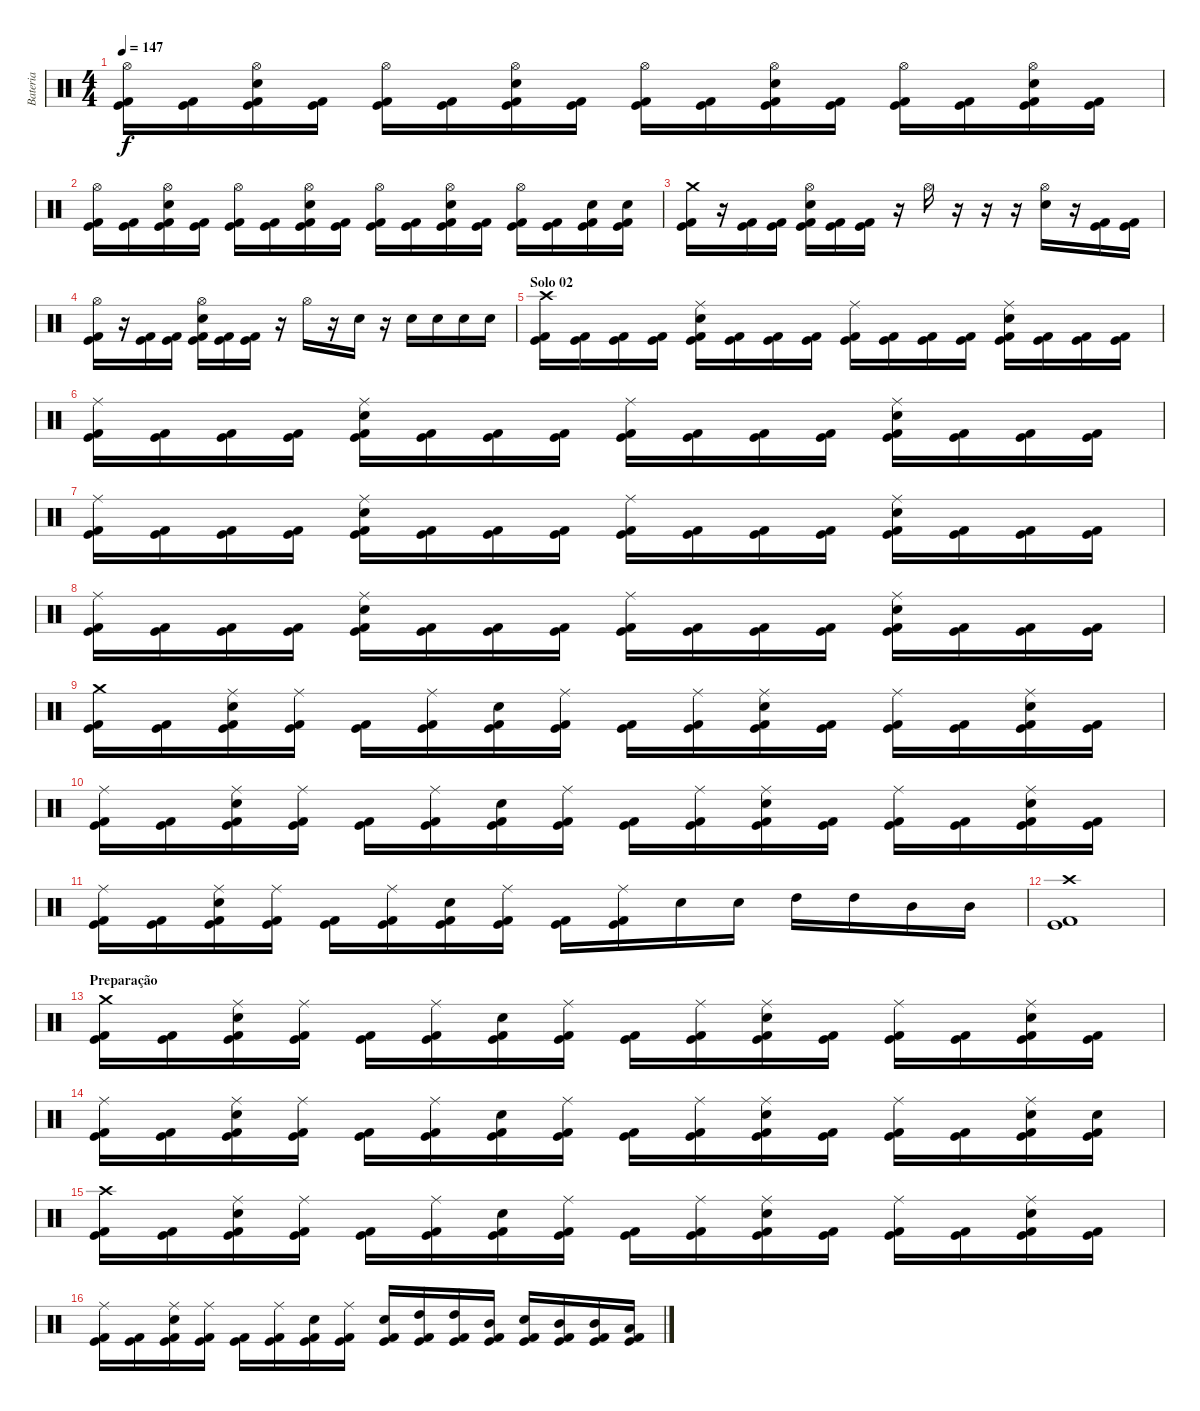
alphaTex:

\track ("Bateria" "Bateria") {instrument percussion}
\staff {score}
\articulation defaults
\ts (4 4)
\tempo 147
\clef neutral
\ks c
("Hi-Hat (open)" "Kick (hit)" "Kick (hit) 2").16{dy f} ("Kick (hit)" "Kick (hit) 2").16 ("Hi-Hat (open)" "Electric Snare (hit)" "Kick (hit)" "Kick (hit) 2").16 ("Kick (hit)" "Kick (hit) 2").16 ("Hi-Hat (open)" "Kick (hit)" "Kick (hit) 2").16 ("Kick (hit)" "Kick (hit) 2").16 ("Hi-Hat (open)" "Electric Snare (hit)" "Kick (hit)" "Kick (hit) 2").16 ("Kick (hit)" "Kick (hit) 2").16 ("Hi-Hat (open)" "Kick (hit)" "Kick (hit) 2").16 ("Kick (hit)" "Kick (hit) 2").16 ("Hi-Hat (open)" "Electric Snare (hit)" "Kick (hit)" "Kick (hit) 2").16 ("Kick (hit)" "Kick (hit) 2").16 ("Hi-Hat (open)" "Kick (hit)" "Kick (hit) 2").16 ("Kick (hit)" "Kick (hit) 2").16 ("Hi-Hat (open)" "Electric Snare (hit)" "Kick (hit)" "Kick (hit) 2").16 ("Kick (hit)" "Kick (hit) 2").16 |
("Hi-Hat (open)" "Kick (hit)" "Kick (hit) 2").16 ("Kick (hit)" "Kick (hit) 2").16 ("Hi-Hat (open)" "Electric Snare (hit)" "Kick (hit)" "Kick (hit) 2").16 ("Kick (hit)" "Kick (hit) 2").16 ("Hi-Hat (open)" "Kick (hit)" "Kick (hit) 2").16 ("Kick (hit)" "Kick (hit) 2").16 ("Hi-Hat (open)" "Electric Snare (hit)" "Kick (hit)" "Kick (hit) 2").16 ("Kick (hit)" "Kick (hit) 2").16 ("Hi-Hat (open)" "Kick (hit)" "Kick (hit) 2").16 ("Kick (hit)" "Kick (hit) 2").16 ("Hi-Hat (open)" "Electric Snare (hit)" "Kick (hit)" "Kick (hit) 2").16 ("Kick (hit)" "Kick (hit) 2").16 ("Hi-Hat (open)" "Kick (hit)" "Kick (hit) 2").16 ("Kick (hit)" "Kick (hit) 2").16 ("Electric Snare (hit)" "Kick (hit)" "Kick (hit) 2").16 ("Electric Snare (hit)" "Kick (hit)" "Kick (hit) 2").16 |
("Crash medium (hit)" "Kick (hit)" "Kick (hit) 2").16 r.16 ("Kick (hit)" "Kick (hit) 2").16 ("Kick (hit)" "Kick (hit) 2").16 ("Hi-Hat (open)" "Electric Snare (hit)" "Kick (hit)" "Kick (hit) 2").16 ("Kick (hit)" "Kick (hit) 2").16 ("Kick (hit)" "Kick (hit) 2").16 r.16 "Hi-Hat (open)".16 r.16 r.16 r.16 ("Hi-Hat (open)" "Electric Snare (hit)").16 r.16 ("Kick (hit)" "Kick (hit) 2").16 ("Kick (hit)" "Kick (hit) 2").16 |
("Hi-Hat (open)" "Kick (hit)" "Kick (hit) 2").16 r.16 ("Kick (hit)" "Kick (hit) 2").16 ("Kick (hit)" "Kick (hit) 2").16 ("Hi-Hat (open)" "Electric Snare (hit)" "Kick (hit)" "Kick (hit) 2").16 ("Kick (hit)" "Kick (hit) 2").16 ("Kick (hit)" "Kick (hit) 2").16 r.16 "Hi-Hat (open)".16 r.16 "Electric Snare (hit)".16 r.16 "Electric Snare (hit)".16 "Electric Snare (hit)".16 "Electric Snare (hit)".16 "Electric Snare (hit)".16 |
\section ("" "Solo 02")
("Crash high (hit)" "Kick (hit)" "Kick (hit) 2").16 ("Kick (hit)" "Kick (hit) 2").16 ("Kick (hit)" "Kick (hit) 2").16 ("Kick (hit)" "Kick (hit) 2").16 ("Ride (middle)" "Electric Snare (hit)" "Kick (hit)" "Kick (hit) 2").16 ("Kick (hit)" "Kick (hit) 2").16 ("Kick (hit)" "Kick (hit) 2").16 ("Kick (hit)" "Kick (hit) 2").16 ("Ride (middle)" "Kick (hit)" "Kick (hit) 2").16 ("Kick (hit)" "Kick (hit) 2").16 ("Kick (hit)" "Kick (hit) 2").16 ("Kick (hit)" "Kick (hit) 2").16 ("Ride (middle)" "Electric Snare (hit)" "Kick (hit)" "Kick (hit) 2").16 ("Kick (hit)" "Kick (hit) 2").16 ("Kick (hit)" "Kick (hit) 2").16 ("Kick (hit)" "Kick (hit) 2").16 |
("Ride (middle)" "Kick (hit)" "Kick (hit) 2").16 ("Kick (hit)" "Kick (hit) 2").16 ("Kick (hit)" "Kick (hit) 2").16 ("Kick (hit)" "Kick (hit) 2").16 ("Ride (middle)" "Electric Snare (hit)" "Kick (hit)" "Kick (hit) 2").16 ("Kick (hit)" "Kick (hit) 2").16 ("Kick (hit)" "Kick (hit) 2").16 ("Kick (hit)" "Kick (hit) 2").16 ("Ride (middle)" "Kick (hit)" "Kick (hit) 2").16 ("Kick (hit)" "Kick (hit) 2").16 ("Kick (hit)" "Kick (hit) 2").16 ("Kick (hit)" "Kick (hit) 2").16 ("Ride (middle)" "Electric Snare (hit)" "Kick (hit)" "Kick (hit) 2").16 ("Kick (hit)" "Kick (hit) 2").16 ("Kick (hit)" "Kick (hit) 2").16 ("Kick (hit)" "Kick (hit) 2").16 |
("Ride (middle)" "Kick (hit)" "Kick (hit) 2").16 ("Kick (hit)" "Kick (hit) 2").16 ("Kick (hit)" "Kick (hit) 2").16 ("Kick (hit)" "Kick (hit) 2").16 ("Ride (middle)" "Electric Snare (hit)" "Kick (hit)" "Kick (hit) 2").16 ("Kick (hit)" "Kick (hit) 2").16 ("Kick (hit)" "Kick (hit) 2").16 ("Kick (hit)" "Kick (hit) 2").16 ("Ride (middle)" "Kick (hit)" "Kick (hit) 2").16 ("Kick (hit)" "Kick (hit) 2").16 ("Kick (hit)" "Kick (hit) 2").16 ("Kick (hit)" "Kick (hit) 2").16 ("Ride (middle)" "Electric Snare (hit)" "Kick (hit)" "Kick (hit) 2").16 ("Kick (hit)" "Kick (hit) 2").16 ("Kick (hit)" "Kick (hit) 2").16 ("Kick (hit)" "Kick (hit) 2").16 |
("Ride (middle)" "Kick (hit)" "Kick (hit) 2").16 ("Kick (hit)" "Kick (hit) 2").16 ("Kick (hit)" "Kick (hit) 2").16 ("Kick (hit)" "Kick (hit) 2").16 ("Ride (middle)" "Electric Snare (hit)" "Kick (hit)" "Kick (hit) 2").16 ("Kick (hit)" "Kick (hit) 2").16 ("Kick (hit)" "Kick (hit) 2").16 ("Kick (hit)" "Kick (hit) 2").16 ("Ride (middle)" "Kick (hit)" "Kick (hit) 2").16 ("Kick (hit)" "Kick (hit) 2").16 ("Kick (hit)" "Kick (hit) 2").16 ("Kick (hit)" "Kick (hit) 2").16 ("Ride (middle)" "Electric Snare (hit)" "Kick (hit)" "Kick (hit) 2").16 ("Kick (hit)" "Kick (hit) 2").16 ("Kick (hit)" "Kick (hit) 2").16 ("Kick (hit)" "Kick (hit) 2").16 |
("Crash medium (hit)" "Kick (hit)" "Kick (hit) 2").16 ("Kick (hit)" "Kick (hit) 2").16 ("Ride (middle)" "Electric Snare (hit)" "Kick (hit)" "Kick (hit) 2").16 ("Ride (middle)" "Kick (hit)" "Kick (hit) 2").16 ("Kick (hit)" "Kick (hit) 2").16 ("Ride (middle)" "Kick (hit)" "Kick (hit) 2").16 ("Electric Snare (hit)" "Kick (hit)" "Kick (hit) 2").16 ("Ride (middle)" "Kick (hit)" "Kick (hit) 2").16 ("Kick (hit)" "Kick (hit) 2").16 ("Ride (middle)" "Kick (hit)" "Kick (hit) 2").16 ("Ride (middle)" "Electric Snare (hit)" "Kick (hit)" "Kick (hit) 2").16 ("Kick (hit)" "Kick (hit) 2").16 ("Ride (middle)" "Kick (hit)" "Kick (hit) 2").16 ("Kick (hit)" "Kick (hit) 2").16 ("Ride (middle)" "Electric Snare (hit)" "Kick (hit)" "Kick (hit) 2").16 ("Kick (hit)" "Kick (hit) 2").16 |
("Ride (middle)" "Kick (hit)" "Kick (hit) 2").16 ("Kick (hit)" "Kick (hit) 2").16 ("Ride (middle)" "Electric Snare (hit)" "Kick (hit)" "Kick (hit) 2").16 ("Ride (middle)" "Kick (hit)" "Kick (hit) 2").16 ("Kick (hit)" "Kick (hit) 2").16 ("Ride (middle)" "Kick (hit)" "Kick (hit) 2").16 ("Electric Snare (hit)" "Kick (hit)" "Kick (hit) 2").16 ("Ride (middle)" "Kick (hit)" "Kick (hit) 2").16 ("Kick (hit)" "Kick (hit) 2").16 ("Ride (middle)" "Kick (hit)" "Kick (hit) 2").16 ("Ride (middle)" "Electric Snare (hit)" "Kick (hit)" "Kick (hit) 2").16 ("Kick (hit)" "Kick (hit) 2").16 ("Ride (middle)" "Kick (hit)" "Kick (hit) 2").16 ("Kick (hit)" "Kick (hit) 2").16 ("Ride (middle)" "Electric Snare (hit)" "Kick (hit)" "Kick (hit) 2").16 ("Kick (hit)" "Kick (hit) 2").16 |
("Ride (middle)" "Kick (hit)" "Kick (hit) 2").16 ("Kick (hit)" "Kick (hit) 2").16 ("Ride (middle)" "Electric Snare (hit)" "Kick (hit)" "Kick (hit) 2").16 ("Ride (middle)" "Kick (hit)" "Kick (hit) 2").16 ("Kick (hit)" "Kick (hit) 2").16 ("Ride (middle)" "Kick (hit)" "Kick (hit) 2").16 ("Electric Snare (hit)" "Kick (hit)" "Kick (hit) 2").16 ("Ride (middle)" "Kick (hit)" "Kick (hit) 2").16 ("Kick (hit)" "Kick (hit) 2").16 ("Ride (middle)" "Kick (hit)" "Kick (hit) 2").16 "Electric Snare (hit)".16 "Electric Snare (hit)".16 "High Tom (hit)".16 "High Tom (hit)".16 "Mid Tom (hit)".16 "Mid Tom (hit)".16 |
("Crash high (hit)" "Kick (hit)" "Kick (hit) 2").1 |
\section ("" "Preparação")
("Crash medium (hit)" "Kick (hit)" "Kick (hit) 2").16 ("Kick (hit)" "Kick (hit) 2").16 ("Ride (middle)" "Electric Snare (hit)" "Kick (hit)" "Kick (hit) 2").16 ("Ride (middle)" "Kick (hit)" "Kick (hit) 2").16 ("Kick (hit)" "Kick (hit) 2").16 ("Ride (middle)" "Kick (hit)" "Kick (hit) 2").16 ("Electric Snare (hit)" "Kick (hit)" "Kick (hit) 2").16 ("Ride (middle)" "Kick (hit)" "Kick (hit) 2").16 ("Kick (hit)" "Kick (hit) 2").16 ("Ride (middle)" "Kick (hit)" "Kick (hit) 2").16 ("Ride (middle)" "Electric Snare (hit)" "Kick (hit)" "Kick (hit) 2").16 ("Kick (hit)" "Kick (hit) 2").16 ("Ride (middle)" "Kick (hit)" "Kick (hit) 2").16 ("Kick (hit)" "Kick (hit) 2").16 ("Ride (middle)" "Electric Snare (hit)" "Kick (hit)" "Kick (hit) 2").16 ("Kick (hit)" "Kick (hit) 2").16 |
("Ride (middle)" "Kick (hit)" "Kick (hit) 2").16 ("Kick (hit)" "Kick (hit) 2").16 ("Ride (middle)" "Electric Snare (hit)" "Kick (hit)" "Kick (hit) 2").16 ("Ride (middle)" "Kick (hit)" "Kick (hit) 2").16 ("Kick (hit)" "Kick (hit) 2").16 ("Ride (middle)" "Kick (hit)" "Kick (hit) 2").16 ("Electric Snare (hit)" "Kick (hit)" "Kick (hit) 2").16 ("Ride (middle)" "Kick (hit)" "Kick (hit) 2").16 ("Kick (hit)" "Kick (hit) 2").16 ("Ride (middle)" "Kick (hit)" "Kick (hit) 2").16 ("Ride (middle)" "Electric Snare (hit)" "Kick (hit)" "Kick (hit) 2").16 ("Kick (hit)" "Kick (hit) 2").16 ("Ride (middle)" "Kick (hit)" "Kick (hit) 2").16 ("Kick (hit)" "Kick (hit) 2").16 ("Ride (middle)" "Electric Snare (hit)" "Kick (hit)" "Kick (hit) 2").16 ("Electric Snare (hit)" "Kick (hit)" "Kick (hit) 2").16 |
("Crash high (hit)" "Kick (hit)" "Kick (hit) 2").16 ("Kick (hit)" "Kick (hit) 2").16 ("Ride (middle)" "Electric Snare (hit)" "Kick (hit)" "Kick (hit) 2").16 ("Ride (middle)" "Kick (hit)" "Kick (hit) 2").16 ("Kick (hit)" "Kick (hit) 2").16 ("Ride (middle)" "Kick (hit)" "Kick (hit) 2").16 ("Electric Snare (hit)" "Kick (hit)" "Kick (hit) 2").16 ("Ride (middle)" "Kick (hit)" "Kick (hit) 2").16 ("Kick (hit)" "Kick (hit) 2").16 ("Ride (middle)" "Kick (hit)" "Kick (hit) 2").16 ("Ride (middle)" "Electric Snare (hit)" "Kick (hit)" "Kick (hit) 2").16 ("Kick (hit)" "Kick (hit) 2").16 ("Ride (middle)" "Kick (hit)" "Kick (hit) 2").16 ("Kick (hit)" "Kick (hit) 2").16 ("Ride (middle)" "Electric Snare (hit)" "Kick (hit)" "Kick (hit) 2").16 ("Kick (hit)" "Kick (hit) 2").16 |
("Ride (middle)" "Kick (hit)" "Kick (hit) 2").16 ("Kick (hit)" "Kick (hit) 2").16 ("Ride (middle)" "Electric Snare (hit)" "Kick (hit)" "Kick (hit) 2").16 ("Ride (middle)" "Kick (hit)" "Kick (hit) 2").16 ("Kick (hit)" "Kick (hit) 2").16 ("Ride (middle)" "Kick (hit)" "Kick (hit) 2").16 ("Electric Snare (hit)" "Kick (hit)" "Kick (hit) 2").16 ("Ride (middle)" "Kick (hit)" "Kick (hit) 2").16 ("Electric Snare (hit)" "Kick (hit)" "Kick (hit) 2").16 ("High Tom (hit)" "Kick (hit)" "Kick (hit) 2").16 ("High Tom (hit)" "Kick (hit)" "Kick (hit) 2").16 ("Mid Tom (hit)" "Kick (hit)" "Kick (hit) 2").16 ("Electric Snare (hit)" "Kick (hit)" "Kick (hit) 2").16 ("Mid Tom (hit)" "Kick (hit)" "Kick (hit) 2").16 ("Mid Tom (hit)" "Kick (hit)" "Kick (hit) 2").16 ("Low Tom (hit)" "Kick (hit)" "Kick (hit) 2").16
